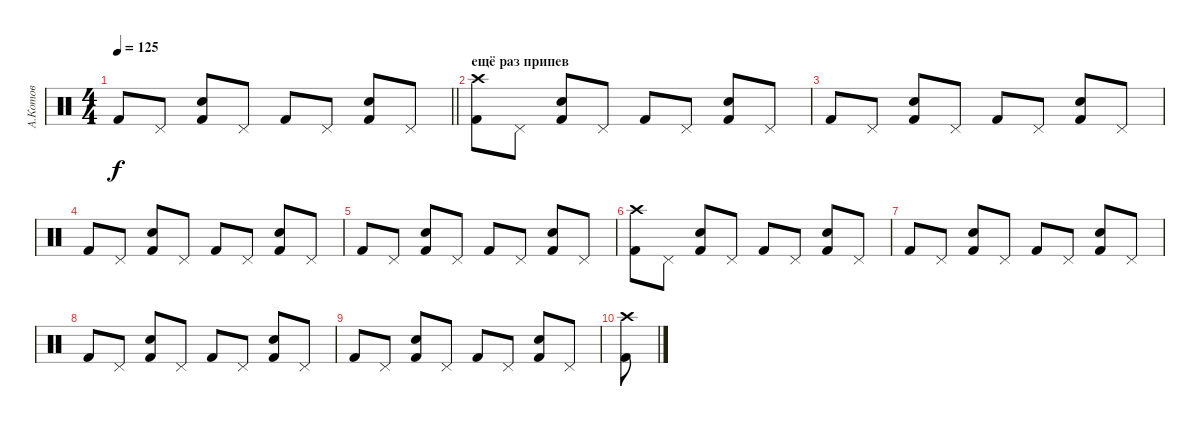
\track ("А.Котов" "А.Котов") {instrument percussion}
\staff {score}
\articulation defaults
\ts (4 4)
\tempo 125
\clef neutral
\barLineRight lightlight
\ks c "Kick (hit) 2".8{dy f} "Pedal Hi-Hat (hit)".8
("Kick (hit) 2" "Snare (hit) 2").8 "Pedal Hi-Hat (hit)".8 "Kick (hit) 2".8 "Pedal Hi-Hat (hit)".8 ("Kick (hit) 2" "Snare (hit) 2").8 "Pedal Hi-Hat (hit)".8 |
\section ("" "ещё раз припев")
("Kick (hit) 2" "Crash high (hit)").8 "Pedal Hi-Hat (hit)".8 ("Kick (hit) 2" "Snare (hit) 2").8 "Pedal Hi-Hat (hit)".8 "Kick (hit) 2".8 "Pedal Hi-Hat (hit)".8 ("Kick (hit) 2" "Snare (hit) 2").8 "Pedal Hi-Hat (hit)".8 |
"Kick (hit) 2".8 "Pedal Hi-Hat (hit)".8 ("Kick (hit) 2" "Snare (hit) 2").8 "Pedal Hi-Hat (hit)".8 "Kick (hit) 2".8 "Pedal Hi-Hat (hit)".8 ("Kick (hit) 2" "Snare (hit) 2").8 "Pedal Hi-Hat (hit)".8 |
"Kick (hit) 2".8 "Pedal Hi-Hat (hit)".8 ("Kick (hit) 2" "Snare (hit) 2").8 "Pedal Hi-Hat (hit)".8 "Kick (hit) 2".8 "Pedal Hi-Hat (hit)".8 ("Kick (hit) 2" "Snare (hit) 2").8 "Pedal Hi-Hat (hit)".8 |
"Kick (hit) 2".8 "Pedal Hi-Hat (hit)".8 ("Kick (hit) 2" "Snare (hit) 2").8 "Pedal Hi-Hat (hit)".8 "Kick (hit) 2".8 "Pedal Hi-Hat (hit)".8 ("Kick (hit) 2" "Snare (hit) 2").8 "Pedal Hi-Hat (hit)".8 |
("Kick (hit) 2" "Crash high (hit)").8 "Pedal Hi-Hat (hit)".8 ("Kick (hit) 2" "Snare (hit) 2").8 "Pedal Hi-Hat (hit)".8 "Kick (hit) 2".8 "Pedal Hi-Hat (hit)".8 ("Kick (hit) 2" "Snare (hit) 2").8 "Pedal Hi-Hat (hit)".8 |
"Kick (hit) 2".8 "Pedal Hi-Hat (hit)".8 ("Kick (hit) 2" "Snare (hit) 2").8 "Pedal Hi-Hat (hit)".8 "Kick (hit) 2".8 "Pedal Hi-Hat (hit)".8 ("Kick (hit) 2" "Snare (hit) 2").8 "Pedal Hi-Hat (hit)".8 |
"Kick (hit) 2".8 "Pedal Hi-Hat (hit)".8 ("Kick (hit) 2" "Snare (hit) 2").8 "Pedal Hi-Hat (hit)".8 "Kick (hit) 2".8 "Pedal Hi-Hat (hit)".8 ("Kick (hit) 2" "Snare (hit) 2").8 "Pedal Hi-Hat (hit)".8 |
"Kick (hit) 2".8 "Pedal Hi-Hat (hit)".8 ("Kick (hit) 2" "Snare (hit) 2").8 "Pedal Hi-Hat (hit)".8 "Kick (hit) 2".8 "Pedal Hi-Hat (hit)".8 ("Kick (hit) 2" "Snare (hit) 2").8 "Pedal Hi-Hat (hit)".8 |
("Kick (hit) 2" "Crash high (hit)").8
